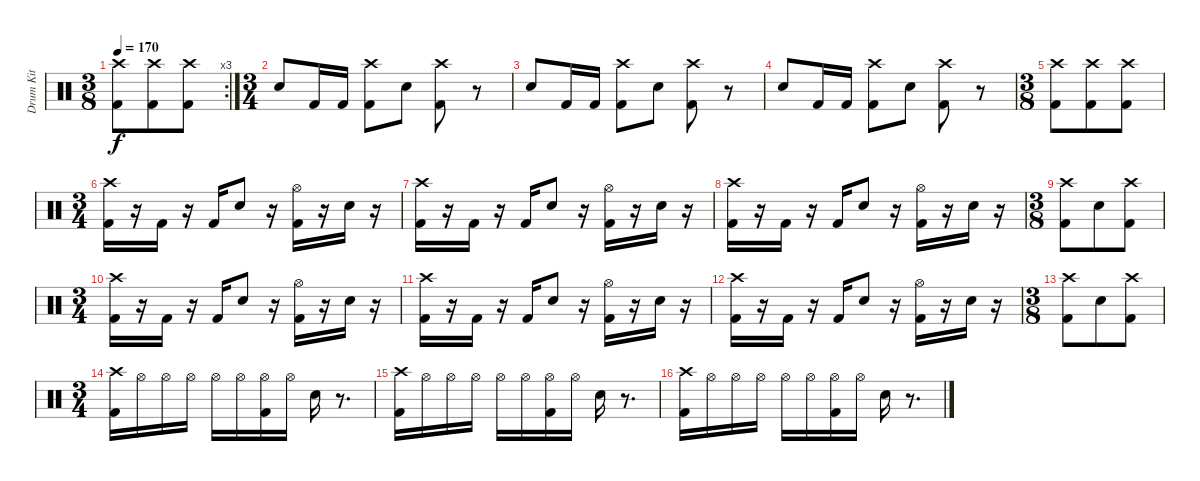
\track ("Drum Kit" "Drum Kit") {mute instrument percussion}
\staff {score}
\articulation defaults
\rc 3
\ts (3 8)
\tempo 170
\clef neutral
\ks c
("Crash high (hit)" "Kick (hit) 2").8{dy f} ("Crash high (hit)" "Kick (hit) 2").8 ("Crash high (hit)" "Kick (hit) 2").8 |
\ts (3 4)
"Electric Snare (hit)".8 "Kick (hit) 2".16 "Kick (hit) 2".16 ("Crash high (hit)" "Kick (hit) 2").8 "Electric Snare (hit)".8 ("Crash high (hit)" "Kick (hit) 2").8 r.8 |
"Electric Snare (hit)".8 "Kick (hit) 2".16 "Kick (hit) 2".16 ("Crash high (hit)" "Kick (hit) 2").8 "Electric Snare (hit)".8 ("Crash high (hit)" "Kick (hit) 2").8 r.8 |
"Electric Snare (hit)".8 "Kick (hit) 2".16 "Kick (hit) 2".16 ("Crash high (hit)" "Kick (hit) 2").8 "Electric Snare (hit)".8 ("Crash high (hit)" "Kick (hit) 2").8 r.8 |
\ts (3 8)
("Crash high (hit)" "Kick (hit) 2").8 ("Crash high (hit)" "Kick (hit) 2").8 ("Crash high (hit)" "Kick (hit) 2").8 |
\ts (3 4)
("Kick (hit) 2" "Crash high (hit)").16 r.16 "Kick (hit) 2".16 r.16 "Kick (hit) 2".16 "Electric Snare (hit)".8 r.16 ("Hi-Hat (open)" "Kick (hit) 2").16 r.16 "Electric Snare (hit)".16 r.16 |
("Kick (hit) 2" "Crash high (hit)").16 r.16 "Kick (hit) 2".16 r.16 "Kick (hit) 2".16 "Electric Snare (hit)".8 r.16 ("Hi-Hat (open)" "Kick (hit) 2").16 r.16 "Electric Snare (hit)".16 r.16 |
("Kick (hit) 2" "Crash high (hit)").16 r.16 "Kick (hit) 2".16 r.16 "Kick (hit) 2".16 "Electric Snare (hit)".8 r.16 ("Hi-Hat (open)" "Kick (hit) 2").16 r.16 "Electric Snare (hit)".16 r.16 |
\ts (3 8)
("Crash high (hit)" "Kick (hit) 2").8 "Electric Snare (hit)".8 ("Crash high (hit)" "Kick (hit) 2").8 |
\ts (3 4)
("Kick (hit) 2" "Crash high (hit)").16 r.16 "Kick (hit) 2".16 r.16 "Kick (hit) 2".16 "Electric Snare (hit)".8 r.16 ("Hi-Hat (open)" "Kick (hit) 2").16 r.16 "Electric Snare (hit)".16 r.16 |
("Kick (hit) 2" "Crash high (hit)").16 r.16 "Kick (hit) 2".16 r.16 "Kick (hit) 2".16 "Electric Snare (hit)".8 r.16 ("Hi-Hat (open)" "Kick (hit) 2").16 r.16 "Electric Snare (hit)".16 r.16 |
("Kick (hit) 2" "Crash high (hit)").16 r.16 "Kick (hit) 2".16 r.16 "Kick (hit) 2".16 "Electric Snare (hit)".8 r.16 ("Hi-Hat (open)" "Kick (hit) 2").16 r.16 "Electric Snare (hit)".16 r.16 |
\ts (3 8)
("Crash high (hit)" "Kick (hit) 2").8 "Electric Snare (hit)".8 ("Crash high (hit)" "Kick (hit) 2").8 |
\ts (3 4)
("Kick (hit) 2" "Crash high (hit)").16 "Hi-Hat (open)".16 "Hi-Hat (open)".16 "Hi-Hat (open)".16 "Hi-Hat (open)".16 "Hi-Hat (open)".16 ("Hi-Hat (open)" "Kick (hit) 2").16 "Hi-Hat (open)".16 "Electric Snare (hit)".16 r.8{d} |
("Kick (hit) 2" "Crash high (hit)").16 "Hi-Hat (open)".16 "Hi-Hat (open)".16 "Hi-Hat (open)".16 "Hi-Hat (open)".16 "Hi-Hat (open)".16 ("Hi-Hat (open)" "Kick (hit) 2").16 "Hi-Hat (open)".16 "Electric Snare (hit)".16 r.8{d} |
("Kick (hit) 2" "Crash high (hit)").16 "Hi-Hat (open)".16 "Hi-Hat (open)".16 "Hi-Hat (open)".16 "Hi-Hat (open)".16 "Hi-Hat (open)".16 ("Hi-Hat (open)" "Kick (hit) 2").16 "Hi-Hat (open)".16 "Electric Snare (hit)".16 r.8{d}
